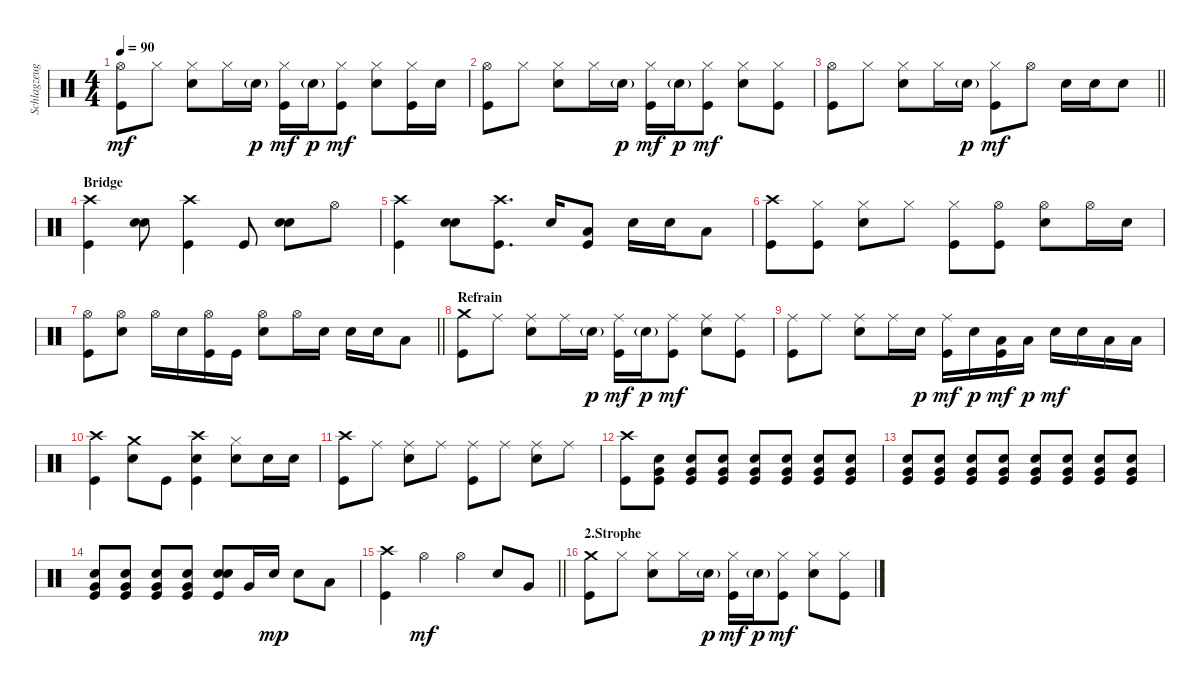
\track ("Schlagzeug" "Schlagzeug") {instrument percussion}
\staff {score}
\articulation defaults
\ts (4 4)
\tempo 90
\clef neutral
\ks c
("Hi-Hat (open)" "Kick (hit)").8{dy mf} "Hi-Hat (closed)".8 ("Hi-Hat (closed)" "Snare (hit) 2").8 "Hi-Hat (closed)".16 "Snare (hit) 2"{g}.16{dy p} ("Hi-Hat (closed)" "Kick (hit)").16{dy mf} "Snare (hit) 2"{g}.16{dy p} ("Hi-Hat (closed)" "Kick (hit)").8{dy mf} ("Hi-Hat (closed)" "Snare (hit) 2").8 ("Hi-Hat (closed)" "Kick (hit)").16 "Snare (hit) 2".16 |
("Hi-Hat (open)" "Kick (hit)").8 "Hi-Hat (closed)".8 ("Hi-Hat (closed)" "Snare (hit) 2").8 "Hi-Hat (closed)".16 "Snare (hit) 2"{g}.16{dy p} ("Hi-Hat (closed)" "Kick (hit)").16{dy mf} "Snare (hit) 2"{g}.16{dy p} ("Hi-Hat (closed)" "Kick (hit)").8{dy mf} ("Hi-Hat (closed)" "Snare (hit) 2").8 ("Hi-Hat (closed)" "Kick (hit)").8 |
\barLineRight lightlight
("Hi-Hat (open)" "Kick (hit)").8 "Hi-Hat (closed)".8 ("Hi-Hat (closed)" "Snare (hit) 2").8 "Hi-Hat (closed)".16 "Snare (hit) 2"{g}.16{dy p} ("Hi-Hat (closed)" "Kick (hit)").8{dy mf} "Hi-Hat (open)".8 "Snare (hit) 2".16 "Snare (hit) 2".16 "Snare (hit) 2".8 |
\section ("" "Bridge")
("Crash high (hit)" "Kick (hit)").4 ("Snare (hit) 2" "Snare (hit) 2").8 ("Crash high (hit)" "Kick (hit)").4 "Kick (hit)".8 ("Snare (hit) 2" "Snare (hit) 2").8 "Hi-Hat (open)".8 |
("Crash high (hit)" "Kick (hit)").4 ("Snare (hit) 2" "Snare (hit) 2").8 ("Crash high (hit)" "Kick (hit)").8{d} "Snare (hit) 2".16 ("Low Tom (hit)" "Kick (hit)").8 "Snare (hit) 2".16 "Snare (hit) 2".16 "Low Tom (hit)".8 |
("Crash high (hit)" "Kick (hit)").8 ("Hi-Hat (closed)" "Kick (hit)").8 ("Hi-Hat (closed)" "Snare (hit) 2").8 "Hi-Hat (closed)".8 ("Hi-Hat (closed)" "Kick (hit)").8 ("Hi-Hat (open)" "Kick (hit)").8 ("Hi-Hat (open)" "Snare (hit) 2").8 "Hi-Hat (open)".16 "Snare (hit) 2".16 |
\barLineRight lightlight
("Hi-Hat (open)" "Kick (hit)").8 ("Hi-Hat (open)" "Snare (hit) 2").8 "Hi-Hat (open)".16 "Snare (hit) 2".16 ("Hi-Hat (open)" "Kick (hit)").16 "Kick (hit)".16 ("Hi-Hat (open)" "Snare (hit) 2").8 "Hi-Hat (open)".16 "Snare (hit) 2".16 "Snare (hit) 2".16 "Snare (hit) 2".16 "Low Tom (hit)".8 |
\section ("" "Refrain")
("Crash medium (hit)" "Kick (hit)").8 "Ride (middle)".8 ("Ride (middle)" "Snare (hit) 2").8 "Ride (middle)".16 "Snare (hit) 2"{g}.16{dy p} ("Ride (middle)" "Kick (hit)").16{dy mf} "Snare (hit) 2"{g}.16{dy p} ("Ride (middle)" "Kick (hit)").8{dy mf} ("Ride (middle)" "Snare (hit) 2").8 ("Ride (middle)" "Kick (hit)").8 |
("Ride (middle)" "Kick (hit)").8 "Ride (middle)".8 ("Ride (middle)" "Snare (hit) 2").8 "Ride (middle)".16 "Snare (hit) 2".16{dy p} ("Ride (middle)" "Kick (hit)").16{dy mf} "Snare (hit) 2".16{dy p} ("Low Tom (hit)" "Kick (hit)").16{dy mf} "Low Tom (hit)".16{dy p} "Snare (hit) 2".16{dy mf} "Snare (hit) 2".16 "Low Tom (hit)".16 "Low Tom (hit)".16 |
("Crash high (hit)" "Kick (hit)").4 ("Crash medium (hit)" "Snare (hit) 2").8 "Kick (hit)".8 ("Crash high (hit)" "Snare (hit) 2" "Kick (hit)").4 ("Hi-Hat (closed)" "Snare (hit) 2").8 "Snare (hit) 2".16 "Snare (hit) 2".16 |
("Crash high (hit)" "Kick (hit)").8 "Ride (middle)".8 ("Ride (middle)" "Snare (hit) 2").8 "Ride (middle)".8 ("Ride (middle)" "Kick (hit)").8 "Ride (middle)".8 ("Ride (middle)" "Snare (hit) 2").8 "Ride (middle)".8 |
("Crash high (hit)" "Kick (hit)").8 ("Snare (hit) 2" "Very Low Tom (hit)" "Kick (hit)").8 ("Snare (hit) 2" "Very Low Tom (hit)" "Kick (hit)").8 ("Snare (hit) 2" "Very Low Tom (hit)" "Kick (hit)").8 ("Snare (hit) 2" "Very Low Tom (hit)" "Kick (hit)").8 ("Snare (hit) 2" "Very Low Tom (hit)" "Kick (hit)").8 ("Snare (hit) 2" "Very Low Tom (hit)" "Kick (hit)").8 ("Snare (hit) 2" "Very Low Tom (hit)" "Kick (hit)").8 |
("Snare (hit) 2" "Very Low Tom (hit)" "Kick (hit)").8 ("Snare (hit) 2" "Very Low Tom (hit)" "Kick (hit)").8 ("Snare (hit) 2" "Very Low Tom (hit)" "Kick (hit)").8 ("Snare (hit) 2" "Very Low Tom (hit)" "Kick (hit)").8 ("Snare (hit) 2" "Very Low Tom (hit)" "Kick (hit)").8 ("Snare (hit) 2" "Very Low Tom (hit)" "Kick (hit)").8 ("Snare (hit) 2" "Very Low Tom (hit)" "Kick (hit)").8 ("Snare (hit) 2" "Very Low Tom (hit)" "Kick (hit)").8 |
("Snare (hit) 2" "Very Low Tom (hit)" "Kick (hit)").8 ("Snare (hit) 2" "Very Low Tom (hit)" "Kick (hit)").8 ("Snare (hit) 2" "Very Low Tom (hit)" "Kick (hit)").8 ("Snare (hit) 2" "Very Low Tom (hit)" "Kick (hit)").8 ("Snare (hit) 2" "Snare (hit) 2" "Kick (hit)").8 "Very Low Tom (hit)".16 "Snare (hit) 2".16{dy mp} "Snare (hit) 2".8 "Low Tom (hit)".8 |
\barLineRight lightlight
("Crash high (hit)" "Kick (hit)").4 "Hi-Hat (open)".4{dy mf} "Hi-Hat (open)".4 "Snare (hit) 2".8 "Very Low Tom (hit)".8 |
\section ("" "2.Strophe")
("Crash medium (hit)" "Kick (hit)").8 "Hi-Hat (closed)".8 ("Hi-Hat (closed)" "Snare (hit) 2").8 "Hi-Hat (closed)".16 "Snare (hit) 2"{g}.16{dy p} ("Hi-Hat (closed)" "Kick (hit)").16{dy mf} "Snare (hit) 2"{g}.16{dy p} ("Hi-Hat (closed)" "Kick (hit)").8{dy mf} ("Hi-Hat (closed)" "Snare (hit) 2").8 ("Hi-Hat (closed)" "Kick (hit)").8
